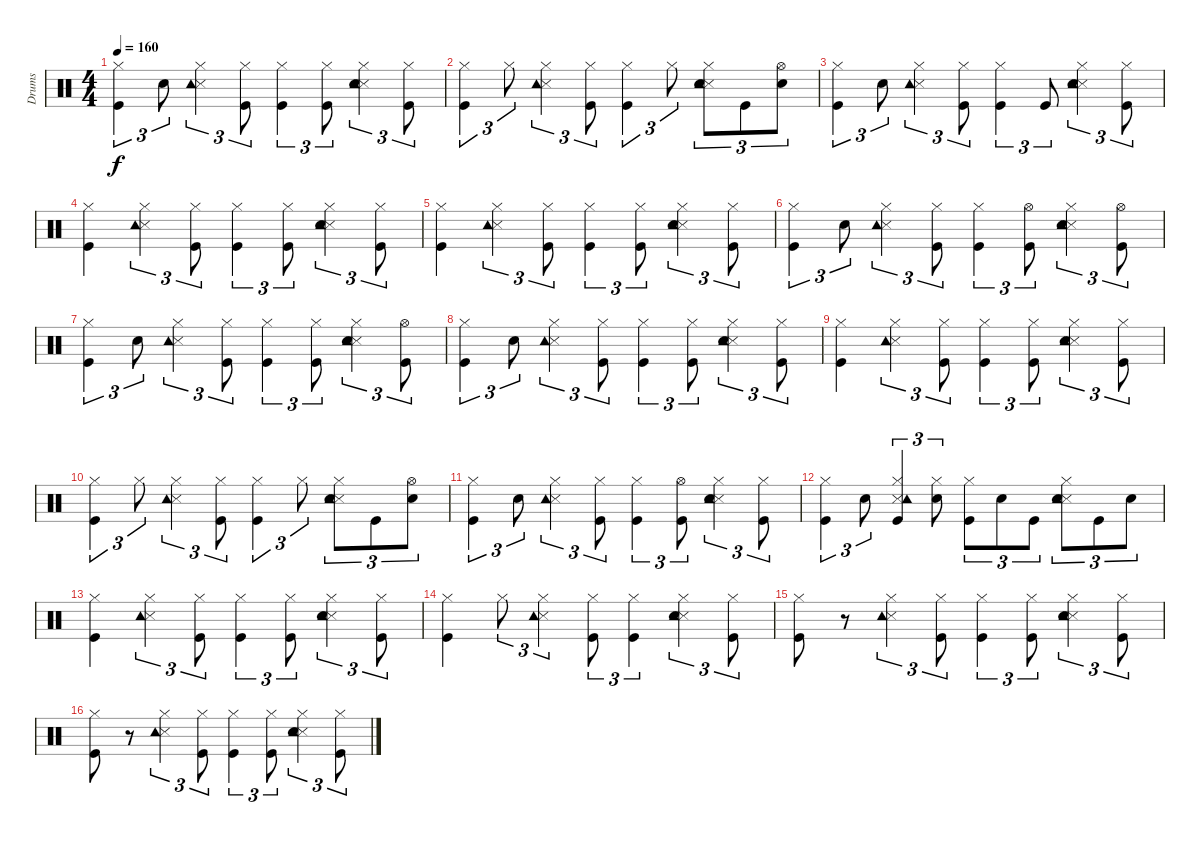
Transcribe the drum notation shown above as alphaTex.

\track ("Drums   " "Drums   ") {instrument percussion}
\staff {score}
\articulation defaults
\ts (4 4)
\tempo 160
\clef neutral
\ks c
("Kick (hit)" "Hi-Hat (closed)").4{tu (3 2) dy f} "Snare (hit) 2".8{tu (3 2)} ("Snare (side stick) 3" "Tambourine (hit)" "Hi-Hat (closed)").4{tu (3 2)} ("Kick (hit)" "Hi-Hat (closed)").8{tu (3 2)} ("Kick (hit)" "Hi-Hat (closed)").4{tu (3 2)} ("Kick (hit)" "Hi-Hat (closed)").8{tu (3 2)} ("Snare (side stick) 3" "Hand Clap (hit)" "Tambourine (hit)" "Hi-Hat (closed)").4{tu (3 2)} ("Kick (hit)" "Hi-Hat (closed)").8{tu (3 2)} |
("Kick (hit)" "Hi-Hat (closed)").4{tu (3 2)} "Hi-Hat (closed)".8{tu (3 2)} ("Snare (side stick) 3" "Tambourine (hit)" "Hi-Hat (closed)").4{tu (3 2)} ("Kick (hit)" "Hi-Hat (closed)").8{tu (3 2)} ("Kick (hit)" "Hi-Hat (closed)").4{tu (3 2)} "Hi-Hat (closed)".8{tu (3 2)} ("Snare (side stick) 3" "Hand Clap (hit)" "Tambourine (hit)" "Hi-Hat (closed)").8{tu (3 2)} "Kick (hit)".8{tu (3 2)} ("Snare (hit) 2" "Hi-Hat (open)").8{tu (3 2)} |
("Kick (hit)" "Hi-Hat (closed)").4{tu (3 2)} "Snare (hit) 2".8{tu (3 2)} ("Snare (side stick) 3" "Tambourine (hit)" "Hi-Hat (closed)").4{tu (3 2)} ("Kick (hit)" "Hi-Hat (closed)").8{tu (3 2)} ("Kick (hit)" "Hi-Hat (closed)").4{tu (3 2)} "Kick (hit)".8{tu (3 2)} ("Snare (side stick) 3" "Hand Clap (hit)" "Tambourine (hit)" "Hi-Hat (closed)").4{tu (3 2)} ("Kick (hit)" "Hi-Hat (closed)").8{tu (3 2)} |
("Kick (hit)" "Hi-Hat (closed)").4 ("Snare (side stick) 3" "Tambourine (hit)" "Hi-Hat (closed)").4{tu (3 2)} ("Kick (hit)" "Hi-Hat (closed)").8{tu (3 2)} ("Kick (hit)" "Hi-Hat (closed)").4{tu (3 2)} ("Kick (hit)" "Hi-Hat (closed)").8{tu (3 2)} ("Snare (side stick) 3" "Hand Clap (hit)" "Tambourine (hit)" "Hi-Hat (closed)").4{tu (3 2)} ("Kick (hit)" "Hi-Hat (closed)").8{tu (3 2)} |
("Kick (hit)" "Hi-Hat (closed)").4 ("Snare (side stick) 3" "Tambourine (hit)" "Hi-Hat (closed)").4{tu (3 2)} ("Kick (hit)" "Hi-Hat (closed)").8{tu (3 2)} ("Kick (hit)" "Hi-Hat (closed)").4{tu (3 2)} ("Kick (hit)" "Hi-Hat (closed)").8{tu (3 2)} ("Snare (side stick) 3" "Hand Clap (hit)" "Tambourine (hit)" "Hi-Hat (closed)").4{tu (3 2)} ("Kick (hit)" "Hi-Hat (closed)").8{tu (3 2)} |
("Kick (hit)" "Hi-Hat (closed)").4{tu (3 2)} "Snare (hit) 2".8{tu (3 2)} ("Snare (side stick) 3" "Tambourine (hit)" "Hi-Hat (closed)").4{tu (3 2)} ("Kick (hit)" "Hi-Hat (closed)").8{tu (3 2)} ("Kick (hit)" "Hi-Hat (closed)").4{tu (3 2)} ("Kick (hit)" "Hi-Hat (open)").8{tu (3 2)} ("Snare (side stick) 3" "Hand Clap (hit)" "Tambourine (hit)" "Hi-Hat (closed)").4{tu (3 2)} ("Kick (hit)" "Hi-Hat (open)").8{tu (3 2)} |
("Kick (hit)" "Hi-Hat (closed)").4{tu (3 2)} "Snare (hit) 2".8{tu (3 2)} ("Snare (side stick) 3" "Tambourine (hit)" "Hi-Hat (closed)").4{tu (3 2)} ("Kick (hit)" "Hi-Hat (closed)").8{tu (3 2)} ("Kick (hit)" "Hi-Hat (closed)").4{tu (3 2)} ("Kick (hit)" "Hi-Hat (closed)").8{tu (3 2)} ("Snare (side stick) 3" "Hand Clap (hit)" "Tambourine (hit)" "Hi-Hat (closed)").4{tu (3 2)} ("Kick (hit)" "Hi-Hat (open)").8{tu (3 2)} |
("Kick (hit)" "Hi-Hat (closed)").4{tu (3 2)} "Snare (hit) 2".8{tu (3 2)} ("Snare (side stick) 3" "Tambourine (hit)" "Hi-Hat (closed)").4{tu (3 2)} ("Kick (hit)" "Hi-Hat (closed)").8{tu (3 2)} ("Kick (hit)" "Hi-Hat (closed)").4{tu (3 2)} ("Kick (hit)" "Hi-Hat (closed)").8{tu (3 2)} ("Snare (side stick) 3" "Hand Clap (hit)" "Tambourine (hit)" "Hi-Hat (closed)").4{tu (3 2)} ("Kick (hit)" "Hi-Hat (closed)").8{tu (3 2)} |
("Kick (hit)" "Hi-Hat (closed)").4 ("Snare (side stick) 3" "Tambourine (hit)" "Hi-Hat (closed)").4{tu (3 2)} ("Kick (hit)" "Hi-Hat (closed)").8{tu (3 2)} ("Kick (hit)" "Hi-Hat (closed)").4{tu (3 2)} ("Kick (hit)" "Hi-Hat (closed)").8{tu (3 2)} ("Snare (side stick) 3" "Hand Clap (hit)" "Tambourine (hit)" "Hi-Hat (closed)").4{tu (3 2)} ("Kick (hit)" "Hi-Hat (closed)").8{tu (3 2)} |
("Kick (hit)" "Hi-Hat (closed)").4{tu (3 2)} "Hi-Hat (closed)".8{tu (3 2)} ("Snare (side stick) 3" "Tambourine (hit)" "Hi-Hat (closed)").4{tu (3 2)} ("Kick (hit)" "Hi-Hat (closed)").8{tu (3 2)} ("Kick (hit)" "Hi-Hat (closed)").4{tu (3 2)} "Hi-Hat (closed)".8{tu (3 2)} ("Snare (side stick) 3" "Hand Clap (hit)" "Tambourine (hit)" "Hi-Hat (closed)").8{tu (3 2)} "Kick (hit)".8{tu (3 2)} ("Snare (hit) 2" "Hi-Hat (open)").8{tu (3 2)} |
("Kick (hit)" "Hi-Hat (closed)").4{tu (3 2)} "Snare (hit) 2".8{tu (3 2)} ("Snare (side stick) 3" "Tambourine (hit)" "Hi-Hat (closed)").4{tu (3 2)} ("Kick (hit)" "Hi-Hat (closed)").8{tu (3 2)} ("Kick (hit)" "Hi-Hat (closed)").4{tu (3 2)} ("Kick (hit)" "Hi-Hat (open)").8{tu (3 2)} ("Snare (side stick) 3" "Hand Clap (hit)" "Tambourine (hit)" "Hi-Hat (closed)").4{tu (3 2)} ("Kick (hit)" "Hi-Hat (closed)").8{tu (3 2)} |
("Kick (hit)" "Hi-Hat (closed)").4{tu (3 2)} "Snare (hit) 2".8{tu (3 2)} ("Kick (hit)" "Snare (side stick) 3" "Tambourine (hit)" "Hi-Hat (closed)").4{tu (3 2)} ("Snare (hit) 2" "Hi-Hat (closed)").8{tu (3 2)} ("Kick (hit)" "Hi-Hat (closed)").8{tu (3 2)} "Snare (hit) 2".8{tu (3 2)} "Kick (hit)".8{tu (3 2)} ("Snare (side stick) 3" "Hand Clap (hit)" "Tambourine (hit)" "Hi-Hat (closed)").8{tu (3 2)} "Kick (hit)".8{tu (3 2)} "Snare (hit) 2".8{tu (3 2)} |
("Kick (hit)" "Hi-Hat (closed)").4 ("Snare (side stick) 3" "Tambourine (hit)" "Hi-Hat (closed)").4{tu (3 2)} ("Kick (hit)" "Hi-Hat (closed)").8{tu (3 2)} ("Kick (hit)" "Hi-Hat (closed)").4{tu (3 2)} ("Kick (hit)" "Hi-Hat (closed)").8{tu (3 2)} ("Snare (side stick) 3" "Hand Clap (hit)" "Tambourine (hit)" "Hi-Hat (closed)").4{tu (3 2)} ("Kick (hit)" "Hi-Hat (closed)").8{tu (3 2)} |
("Kick (hit)" "Hi-Hat (closed)").4 "Hi-Hat (closed)".8{tu (3 2)} ("Snare (side stick) 3" "Tambourine (hit)" "Hi-Hat (closed)").4{tu (3 2)} ("Kick (hit)" "Hi-Hat (closed)").8{tu (3 2)} ("Kick (hit)" "Hi-Hat (closed)").4{tu (3 2)} ("Snare (side stick) 3" "Hand Clap (hit)" "Tambourine (hit)" "Hi-Hat (closed)").4{tu (3 2)} ("Kick (hit)" "Hi-Hat (closed)").8{tu (3 2)} |
("Kick (hit)" "Hi-Hat (closed)").8 r.8 ("Snare (side stick) 3" "Tambourine (hit)" "Hi-Hat (closed)").4{tu (3 2)} ("Kick (hit)" "Hi-Hat (closed)").8{tu (3 2)} ("Kick (hit)" "Hi-Hat (closed)").4{tu (3 2)} ("Kick (hit)" "Hi-Hat (closed)").8{tu (3 2)} ("Snare (side stick) 3" "Hand Clap (hit)" "Tambourine (hit)" "Hi-Hat (closed)").4{tu (3 2)} ("Kick (hit)" "Hi-Hat (closed)").8{tu (3 2)} |
("Kick (hit)" "Hi-Hat (closed)").8 r.8 ("Snare (side stick) 3" "Tambourine (hit)" "Hi-Hat (closed)").4{tu (3 2)} ("Kick (hit)" "Hi-Hat (closed)").8{tu (3 2)} ("Kick (hit)" "Hi-Hat (closed)").4{tu (3 2)} ("Kick (hit)" "Hi-Hat (closed)").8{tu (3 2)} ("Snare (side stick) 3" "Hand Clap (hit)" "Tambourine (hit)" "Hi-Hat (closed)").4{tu (3 2)} ("Kick (hit)" "Hi-Hat (closed)").8{tu (3 2)}
